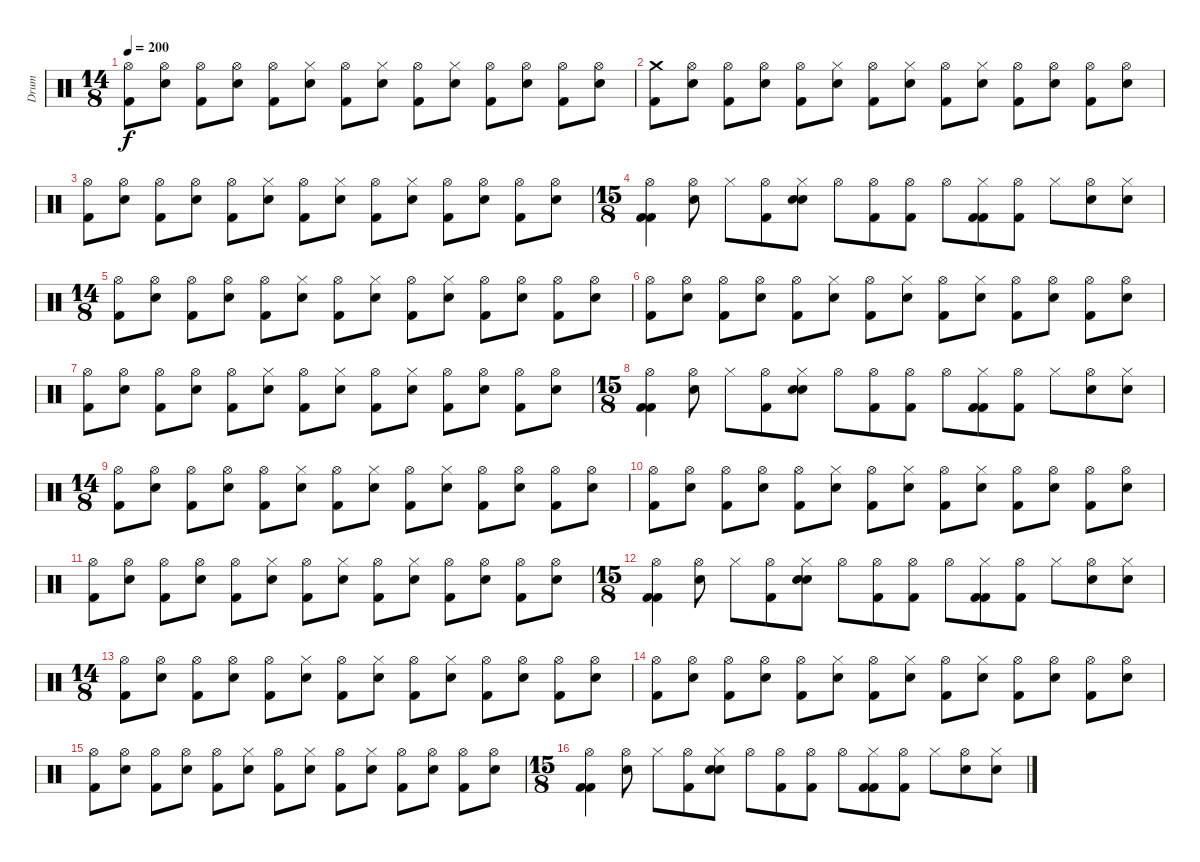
\track ("Drum" "Drum") {instrument percussion}
\staff {score}
\articulation defaults
\ts (14 8)
\tempo 200
\clef neutral
\ks c
("Hi-Hat (open)" "Kick (hit) 2").8{dy f} ("Hi-Hat (open)" "Snare (hit) 2").8 ("Hi-Hat (open)" "Kick (hit) 2").8 ("Hi-Hat (open)" "Snare (hit) 2").8 ("Hi-Hat (open)" "Kick (hit) 2").8 ("Hi-Hat (closed)" "Snare (hit) 2").8 ("Hi-Hat (open)" "Kick (hit) 2").8 ("Hi-Hat (closed)" "Snare (hit) 2").8 ("Hi-Hat (open)" "Kick (hit) 2").8 ("Hi-Hat (closed)" "Snare (hit) 2").8 ("Hi-Hat (open)" "Kick (hit) 2").8 ("Hi-Hat (open)" "Snare (hit) 2").8 ("Hi-Hat (open)" "Kick (hit) 2").8 ("Hi-Hat (open)" "Snare (hit) 2").8 |
("Crash medium (hit)" "Kick (hit) 2").8 ("Hi-Hat (open)" "Snare (hit) 2").8 ("Hi-Hat (open)" "Kick (hit) 2").8 ("Hi-Hat (open)" "Snare (hit) 2").8 ("Hi-Hat (open)" "Kick (hit) 2").8 ("Hi-Hat (closed)" "Snare (hit) 2").8 ("Hi-Hat (open)" "Kick (hit) 2").8 ("Hi-Hat (closed)" "Snare (hit) 2").8 ("Hi-Hat (open)" "Kick (hit) 2").8 ("Hi-Hat (closed)" "Snare (hit) 2").8 ("Hi-Hat (open)" "Kick (hit) 2").8 ("Hi-Hat (open)" "Snare (hit) 2").8 ("Hi-Hat (open)" "Kick (hit) 2").8 ("Hi-Hat (open)" "Snare (hit) 2").8 |
("Hi-Hat (open)" "Kick (hit) 2").8 ("Hi-Hat (open)" "Snare (hit) 2").8 ("Hi-Hat (open)" "Kick (hit) 2").8 ("Hi-Hat (open)" "Snare (hit) 2").8 ("Hi-Hat (open)" "Kick (hit) 2").8 ("Hi-Hat (closed)" "Snare (hit) 2").8 ("Hi-Hat (open)" "Kick (hit) 2").8 ("Hi-Hat (closed)" "Snare (hit) 2").8 ("Hi-Hat (open)" "Kick (hit) 2").8 ("Hi-Hat (closed)" "Snare (hit) 2").8 ("Hi-Hat (open)" "Kick (hit) 2").8 ("Hi-Hat (open)" "Snare (hit) 2").8 ("Hi-Hat (open)" "Kick (hit) 2").8 ("Hi-Hat (open)" "Snare (hit) 2").8 |
\ts (15 8)
("Hi-Hat (open)" "Kick (hit) 2" "Kick (hit) 2").4 ("Hi-Hat (open)" "Snare (hit) 2").8 "Hi-Hat (closed)".8 ("Hi-Hat (open)" "Kick (hit) 2").8 ("Hi-Hat (closed)" "Snare (hit) 2" "Snare (hit) 2").8 "Hi-Hat (open)".8 ("Hi-Hat (open)" "Kick (hit) 2").8 ("Hi-Hat (open)" "Kick (hit) 2").8 "Hi-Hat (open)".8 ("Hi-Hat (closed)" "Kick (hit) 2" "Kick (hit) 2").8 ("Hi-Hat (open)" "Kick (hit) 2").8 "Hi-Hat (closed)".8 ("Hi-Hat (open)" "Snare (hit) 2").8 ("Hi-Hat (closed)" "Snare (hit) 2").8 |
\ts (14 8)
("Hi-Hat (open)" "Kick (hit) 2").8 ("Hi-Hat (open)" "Snare (hit) 2").8 ("Hi-Hat (open)" "Kick (hit) 2").8 ("Hi-Hat (open)" "Snare (hit) 2").8 ("Hi-Hat (open)" "Kick (hit) 2").8 ("Hi-Hat (closed)" "Snare (hit) 2").8 ("Hi-Hat (open)" "Kick (hit) 2").8 ("Hi-Hat (closed)" "Snare (hit) 2").8 ("Hi-Hat (open)" "Kick (hit) 2").8 ("Hi-Hat (closed)" "Snare (hit) 2").8 ("Hi-Hat (open)" "Kick (hit) 2").8 ("Hi-Hat (open)" "Snare (hit) 2").8 ("Hi-Hat (open)" "Kick (hit) 2").8 ("Hi-Hat (open)" "Snare (hit) 2").8 |
("Hi-Hat (open)" "Kick (hit) 2").8 ("Hi-Hat (open)" "Snare (hit) 2").8 ("Hi-Hat (open)" "Kick (hit) 2").8 ("Hi-Hat (open)" "Snare (hit) 2").8 ("Hi-Hat (open)" "Kick (hit) 2").8 ("Hi-Hat (closed)" "Snare (hit) 2").8 ("Hi-Hat (open)" "Kick (hit) 2").8 ("Hi-Hat (closed)" "Snare (hit) 2").8 ("Hi-Hat (open)" "Kick (hit) 2").8 ("Hi-Hat (closed)" "Snare (hit) 2").8 ("Hi-Hat (open)" "Kick (hit) 2").8 ("Hi-Hat (open)" "Snare (hit) 2").8 ("Hi-Hat (open)" "Kick (hit) 2").8 ("Hi-Hat (open)" "Snare (hit) 2").8 |
("Hi-Hat (open)" "Kick (hit) 2").8 ("Hi-Hat (open)" "Snare (hit) 2").8 ("Hi-Hat (open)" "Kick (hit) 2").8 ("Hi-Hat (open)" "Snare (hit) 2").8 ("Hi-Hat (open)" "Kick (hit) 2").8 ("Hi-Hat (closed)" "Snare (hit) 2").8 ("Hi-Hat (open)" "Kick (hit) 2").8 ("Hi-Hat (closed)" "Snare (hit) 2").8 ("Hi-Hat (open)" "Kick (hit) 2").8 ("Hi-Hat (closed)" "Snare (hit) 2").8 ("Hi-Hat (open)" "Kick (hit) 2").8 ("Hi-Hat (open)" "Snare (hit) 2").8 ("Hi-Hat (open)" "Kick (hit) 2").8 ("Hi-Hat (open)" "Snare (hit) 2").8 |
\ts (15 8)
("Hi-Hat (open)" "Kick (hit) 2" "Kick (hit) 2").4 ("Hi-Hat (open)" "Snare (hit) 2").8 "Hi-Hat (closed)".8 ("Hi-Hat (open)" "Kick (hit) 2").8 ("Hi-Hat (closed)" "Snare (hit) 2" "Snare (hit) 2").8 "Hi-Hat (open)".8 ("Hi-Hat (open)" "Kick (hit) 2").8 ("Hi-Hat (open)" "Kick (hit) 2").8 "Hi-Hat (open)".8 ("Hi-Hat (closed)" "Kick (hit) 2" "Kick (hit) 2").8 ("Hi-Hat (open)" "Kick (hit) 2").8 "Hi-Hat (closed)".8 ("Hi-Hat (open)" "Snare (hit) 2").8 ("Hi-Hat (closed)" "Snare (hit) 2").8 |
\ts (14 8)
("Hi-Hat (open)" "Kick (hit) 2").8 ("Hi-Hat (open)" "Snare (hit) 2").8 ("Hi-Hat (open)" "Kick (hit) 2").8 ("Hi-Hat (open)" "Snare (hit) 2").8 ("Hi-Hat (open)" "Kick (hit) 2").8 ("Hi-Hat (closed)" "Snare (hit) 2").8 ("Hi-Hat (open)" "Kick (hit) 2").8 ("Hi-Hat (closed)" "Snare (hit) 2").8 ("Hi-Hat (open)" "Kick (hit) 2").8 ("Hi-Hat (closed)" "Snare (hit) 2").8 ("Hi-Hat (open)" "Kick (hit) 2").8 ("Hi-Hat (open)" "Snare (hit) 2").8 ("Hi-Hat (open)" "Kick (hit) 2").8 ("Hi-Hat (open)" "Snare (hit) 2").8 |
("Hi-Hat (open)" "Kick (hit) 2").8 ("Hi-Hat (open)" "Snare (hit) 2").8 ("Hi-Hat (open)" "Kick (hit) 2").8 ("Hi-Hat (open)" "Snare (hit) 2").8 ("Hi-Hat (open)" "Kick (hit) 2").8 ("Hi-Hat (closed)" "Snare (hit) 2").8 ("Hi-Hat (open)" "Kick (hit) 2").8 ("Hi-Hat (closed)" "Snare (hit) 2").8 ("Hi-Hat (open)" "Kick (hit) 2").8 ("Hi-Hat (closed)" "Snare (hit) 2").8 ("Hi-Hat (open)" "Kick (hit) 2").8 ("Hi-Hat (open)" "Snare (hit) 2").8 ("Hi-Hat (open)" "Kick (hit) 2").8 ("Hi-Hat (open)" "Snare (hit) 2").8 |
("Hi-Hat (open)" "Kick (hit) 2").8 ("Hi-Hat (open)" "Snare (hit) 2").8 ("Hi-Hat (open)" "Kick (hit) 2").8 ("Hi-Hat (open)" "Snare (hit) 2").8 ("Hi-Hat (open)" "Kick (hit) 2").8 ("Hi-Hat (closed)" "Snare (hit) 2").8 ("Hi-Hat (open)" "Kick (hit) 2").8 ("Hi-Hat (closed)" "Snare (hit) 2").8 ("Hi-Hat (open)" "Kick (hit) 2").8 ("Hi-Hat (closed)" "Snare (hit) 2").8 ("Hi-Hat (open)" "Kick (hit) 2").8 ("Hi-Hat (open)" "Snare (hit) 2").8 ("Hi-Hat (open)" "Kick (hit) 2").8 ("Hi-Hat (open)" "Snare (hit) 2").8 |
\ts (15 8)
("Hi-Hat (open)" "Kick (hit) 2" "Kick (hit) 2").4 ("Hi-Hat (open)" "Snare (hit) 2").8 "Hi-Hat (closed)".8 ("Hi-Hat (open)" "Kick (hit) 2").8 ("Hi-Hat (closed)" "Snare (hit) 2" "Snare (hit) 2").8 "Hi-Hat (open)".8 ("Hi-Hat (open)" "Kick (hit) 2").8 ("Hi-Hat (open)" "Kick (hit) 2").8 "Hi-Hat (open)".8 ("Hi-Hat (closed)" "Kick (hit) 2" "Kick (hit) 2").8 ("Hi-Hat (open)" "Kick (hit) 2").8 "Hi-Hat (closed)".8 ("Hi-Hat (open)" "Snare (hit) 2").8 ("Hi-Hat (closed)" "Snare (hit) 2").8 |
\ts (14 8)
("Hi-Hat (open)" "Kick (hit) 2").8 ("Hi-Hat (open)" "Snare (hit) 2").8 ("Hi-Hat (open)" "Kick (hit) 2").8 ("Hi-Hat (open)" "Snare (hit) 2").8 ("Hi-Hat (open)" "Kick (hit) 2").8 ("Hi-Hat (closed)" "Snare (hit) 2").8 ("Hi-Hat (open)" "Kick (hit) 2").8 ("Hi-Hat (closed)" "Snare (hit) 2").8 ("Hi-Hat (open)" "Kick (hit) 2").8 ("Hi-Hat (closed)" "Snare (hit) 2").8 ("Hi-Hat (open)" "Kick (hit) 2").8 ("Hi-Hat (open)" "Snare (hit) 2").8 ("Hi-Hat (open)" "Kick (hit) 2").8 ("Hi-Hat (open)" "Snare (hit) 2").8 |
("Hi-Hat (open)" "Kick (hit) 2").8 ("Hi-Hat (open)" "Snare (hit) 2").8 ("Hi-Hat (open)" "Kick (hit) 2").8 ("Hi-Hat (open)" "Snare (hit) 2").8 ("Hi-Hat (open)" "Kick (hit) 2").8 ("Hi-Hat (closed)" "Snare (hit) 2").8 ("Hi-Hat (open)" "Kick (hit) 2").8 ("Hi-Hat (closed)" "Snare (hit) 2").8 ("Hi-Hat (open)" "Kick (hit) 2").8 ("Hi-Hat (closed)" "Snare (hit) 2").8 ("Hi-Hat (open)" "Kick (hit) 2").8 ("Hi-Hat (open)" "Snare (hit) 2").8 ("Hi-Hat (open)" "Kick (hit) 2").8 ("Hi-Hat (open)" "Snare (hit) 2").8 |
("Hi-Hat (open)" "Kick (hit) 2").8 ("Hi-Hat (open)" "Snare (hit) 2").8 ("Hi-Hat (open)" "Kick (hit) 2").8 ("Hi-Hat (open)" "Snare (hit) 2").8 ("Hi-Hat (open)" "Kick (hit) 2").8 ("Hi-Hat (closed)" "Snare (hit) 2").8 ("Hi-Hat (open)" "Kick (hit) 2").8 ("Hi-Hat (closed)" "Snare (hit) 2").8 ("Hi-Hat (open)" "Kick (hit) 2").8 ("Hi-Hat (closed)" "Snare (hit) 2").8 ("Hi-Hat (open)" "Kick (hit) 2").8 ("Hi-Hat (open)" "Snare (hit) 2").8 ("Hi-Hat (open)" "Kick (hit) 2").8 ("Hi-Hat (open)" "Snare (hit) 2").8 |
\ts (15 8)
("Hi-Hat (open)" "Kick (hit) 2" "Kick (hit) 2").4 ("Hi-Hat (open)" "Snare (hit) 2").8 "Hi-Hat (closed)".8 ("Hi-Hat (open)" "Kick (hit) 2").8 ("Hi-Hat (closed)" "Snare (hit) 2" "Snare (hit) 2").8 "Hi-Hat (open)".8 ("Hi-Hat (open)" "Kick (hit) 2").8 ("Hi-Hat (open)" "Kick (hit) 2").8 "Hi-Hat (open)".8 ("Hi-Hat (closed)" "Kick (hit) 2" "Kick (hit) 2").8 ("Hi-Hat (open)" "Kick (hit) 2").8 "Hi-Hat (closed)".8 ("Hi-Hat (open)" "Snare (hit) 2").8 ("Hi-Hat (closed)" "Snare (hit) 2").8
